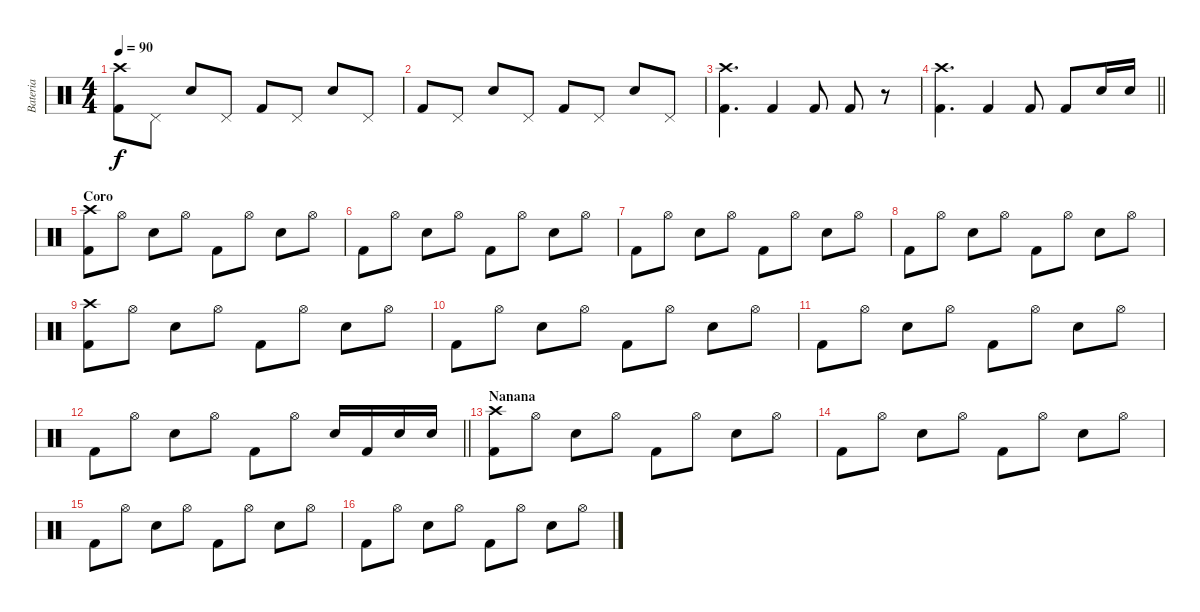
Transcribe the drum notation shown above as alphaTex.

\track ("Bateria" "Bateria") {instrument percussion}
\staff {score}
\articulation defaults
\ts (4 4)
\tempo 90
\clef neutral
\ks c
("Kick (hit) 2" "Crash high (hit)").8{dy f} "Pedal Hi-Hat (hit)".8 "Snare (hit) 2".8 "Pedal Hi-Hat (hit)".8 "Kick (hit) 2".8 "Pedal Hi-Hat (hit)".8 "Snare (hit) 2".8 "Pedal Hi-Hat (hit)".8 |
"Kick (hit) 2".8 "Pedal Hi-Hat (hit)".8 "Snare (hit) 2".8 "Pedal Hi-Hat (hit)".8 "Kick (hit) 2".8 "Pedal Hi-Hat (hit)".8 "Snare (hit) 2".8 "Pedal Hi-Hat (hit)".8 |
("Kick (hit) 2" "Crash high (hit)").4{d} "Kick (hit) 2".4 "Kick (hit) 2".8 "Kick (hit) 2".8 r.8 |
\barLineRight lightlight
("Kick (hit) 2" "Crash high (hit)").4{d} "Kick (hit) 2".4 "Kick (hit) 2".8 "Kick (hit) 2".8 "Snare (hit) 2".16 "Snare (hit) 2".16 |
\section ("" "Coro")
("Kick (hit) 2" "Crash high (hit)").8 "Hi-Hat (open)".8 "Snare (hit) 2".8 "Hi-Hat (open)".8 "Kick (hit) 2".8 "Hi-Hat (open)".8 "Snare (hit) 2".8 "Hi-Hat (open)".8 |
"Kick (hit) 2".8 "Hi-Hat (open)".8 "Snare (hit) 2".8 "Hi-Hat (open)".8 "Kick (hit) 2".8 "Hi-Hat (open)".8 "Snare (hit) 2".8 "Hi-Hat (open)".8 |
"Kick (hit) 2".8 "Hi-Hat (open)".8 "Snare (hit) 2".8 "Hi-Hat (open)".8 "Kick (hit) 2".8 "Hi-Hat (open)".8 "Snare (hit) 2".8 "Hi-Hat (open)".8 |
"Kick (hit) 2".8 "Hi-Hat (open)".8 "Snare (hit) 2".8 "Hi-Hat (open)".8 "Kick (hit) 2".8 "Hi-Hat (open)".8 "Snare (hit) 2".8 "Hi-Hat (open)".8 |
("Kick (hit) 2" "Crash high (hit)").8 "Hi-Hat (open)".8 "Snare (hit) 2".8 "Hi-Hat (open)".8 "Kick (hit) 2".8 "Hi-Hat (open)".8 "Snare (hit) 2".8 "Hi-Hat (open)".8 |
"Kick (hit) 2".8 "Hi-Hat (open)".8 "Snare (hit) 2".8 "Hi-Hat (open)".8 "Kick (hit) 2".8 "Hi-Hat (open)".8 "Snare (hit) 2".8 "Hi-Hat (open)".8 |
"Kick (hit) 2".8 "Hi-Hat (open)".8 "Snare (hit) 2".8 "Hi-Hat (open)".8 "Kick (hit) 2".8 "Hi-Hat (open)".8 "Snare (hit) 2".8 "Hi-Hat (open)".8 |
\barLineRight lightlight "Kick (hit) 2".8 "Hi-Hat (open)".8 "Snare (hit) 2".8 "Hi-Hat (open)".8 "Kick (hit) 2".8 "Hi-Hat (open)".8 "Snare (hit) 2".16 "Kick (hit) 2".16 "Snare (hit) 2".16 "Snare (hit) 2".16
|
\section ("" "Nanana")
("Kick (hit) 2" "Crash high (hit)").8 "Hi-Hat (open)".8 "Snare (hit) 2".8 "Hi-Hat (open)".8 "Kick (hit) 2".8 "Hi-Hat (open)".8 "Snare (hit) 2".8 "Hi-Hat (open)".8 |
"Kick (hit) 2".8 "Hi-Hat (open)".8 "Snare (hit) 2".8 "Hi-Hat (open)".8 "Kick (hit) 2".8 "Hi-Hat (open)".8 "Snare (hit) 2".8 "Hi-Hat (open)".8 |
"Kick (hit) 2".8 "Hi-Hat (open)".8 "Snare (hit) 2".8 "Hi-Hat (open)".8 "Kick (hit) 2".8 "Hi-Hat (open)".8 "Snare (hit) 2".8 "Hi-Hat (open)".8 |
"Kick (hit) 2".8 "Hi-Hat (open)".8 "Snare (hit) 2".8 "Hi-Hat (open)".8 "Kick (hit) 2".8 "Hi-Hat (open)".8 "Snare (hit) 2".8 "Hi-Hat (open)".8
